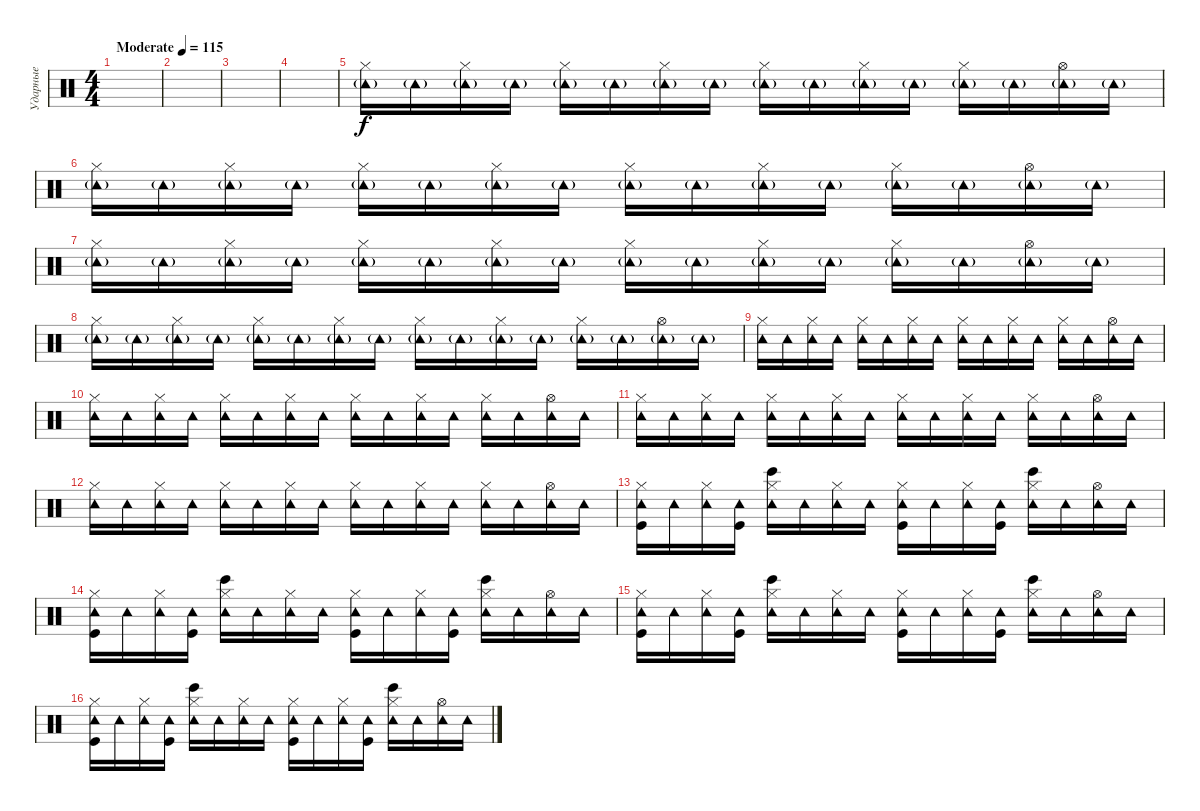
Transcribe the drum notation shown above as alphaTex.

\track ("Ударные" "Ударные") {instrument percussion}
\staff {score}
\articulation defaults
\ts (4 4)
\tempo (115 "Moderate")
\clef neutral
\ks c
|
|
|
|
("Tambourine (hit)"{g} "Hi-Hat (closed)").16{volume 11} "Tambourine (hit)"{g}.16 ("Tambourine (hit)"{g} "Hi-Hat (closed)").16 "Tambourine (hit)"{g}.16 ("Tambourine (hit)"{g} "Hi-Hat (closed)").16 "Tambourine (hit)"{g}.16 ("Tambourine (hit)"{g} "Hi-Hat (closed)").16 "Tambourine (hit)"{g}.16 ("Tambourine (hit)"{g} "Hi-Hat (closed)").16 "Tambourine (hit)"{g}.16 ("Tambourine (hit)"{g} "Hi-Hat (closed)").16 "Tambourine (hit)"{g}.16 ("Tambourine (hit)"{g} "Hi-Hat (closed)").16 "Tambourine (hit)"{g}.16 ("Tambourine (hit)"{g} "Hi-Hat (open)").16 "Tambourine (hit)"{g}.16 |
("Tambourine (hit)"{g} "Hi-Hat (closed)").16 "Tambourine (hit)"{g}.16 ("Tambourine (hit)"{g} "Hi-Hat (closed)").16 "Tambourine (hit)"{g}.16 ("Tambourine (hit)"{g} "Hi-Hat (closed)").16 "Tambourine (hit)"{g}.16 ("Tambourine (hit)"{g} "Hi-Hat (closed)").16 "Tambourine (hit)"{g}.16 ("Tambourine (hit)"{g} "Hi-Hat (closed)").16 "Tambourine (hit)"{g}.16 ("Tambourine (hit)"{g} "Hi-Hat (closed)").16 "Tambourine (hit)"{g}.16 ("Tambourine (hit)"{g} "Hi-Hat (closed)").16 "Tambourine (hit)"{g}.16 ("Tambourine (hit)"{g} "Hi-Hat (open)").16 "Tambourine (hit)"{g}.16 |
("Tambourine (hit)"{g} "Hi-Hat (closed)").16 "Tambourine (hit)"{g}.16 ("Tambourine (hit)"{g} "Hi-Hat (closed)").16 "Tambourine (hit)"{g}.16 ("Tambourine (hit)"{g} "Hi-Hat (closed)").16 "Tambourine (hit)"{g}.16 ("Tambourine (hit)"{g} "Hi-Hat (closed)").16 "Tambourine (hit)"{g}.16 ("Tambourine (hit)"{g} "Hi-Hat (closed)").16 "Tambourine (hit)"{g}.16 ("Tambourine (hit)"{g} "Hi-Hat (closed)").16 "Tambourine (hit)"{g}.16 ("Tambourine (hit)"{g} "Hi-Hat (closed)").16 "Tambourine (hit)"{g}.16 ("Tambourine (hit)"{g} "Hi-Hat (open)").16 "Tambourine (hit)"{g}.16 |
("Tambourine (hit)"{g} "Hi-Hat (closed)").16 "Tambourine (hit)"{g}.16 ("Tambourine (hit)"{g} "Hi-Hat (closed)").16 "Tambourine (hit)"{g}.16 ("Tambourine (hit)"{g} "Hi-Hat (closed)").16 "Tambourine (hit)"{g}.16 ("Tambourine (hit)"{g} "Hi-Hat (closed)").16 "Tambourine (hit)"{g}.16 ("Tambourine (hit)"{g} "Hi-Hat (closed)").16 "Tambourine (hit)"{g}.16 ("Tambourine (hit)"{g} "Hi-Hat (closed)").16 "Tambourine (hit)"{g}.16 ("Tambourine (hit)"{g} "Hi-Hat (closed)").16 "Tambourine (hit)"{g}.16 ("Tambourine (hit)"{g} "Hi-Hat (open)").16 "Tambourine (hit)"{g}.16 |
("Tambourine (hit)" "Hi-Hat (closed)").16{dy f} "Tambourine (hit)".16 ("Tambourine (hit)" "Hi-Hat (closed)").16 "Tambourine (hit)".16 ("Tambourine (hit)" "Hi-Hat (closed)").16 "Tambourine (hit)".16 ("Tambourine (hit)" "Hi-Hat (closed)").16 "Tambourine (hit)".16 ("Tambourine (hit)" "Hi-Hat (closed)").16 "Tambourine (hit)".16 ("Tambourine (hit)" "Hi-Hat (closed)").16 "Tambourine (hit)".16 ("Tambourine (hit)" "Hi-Hat (closed)").16 "Tambourine (hit)".16 ("Tambourine (hit)" "Hi-Hat (open)").16 "Tambourine (hit)".16 |
("Tambourine (hit)" "Hi-Hat (closed)").16 "Tambourine (hit)".16 ("Tambourine (hit)" "Hi-Hat (closed)").16 "Tambourine (hit)".16 ("Tambourine (hit)" "Hi-Hat (closed)").16 "Tambourine (hit)".16 ("Tambourine (hit)" "Hi-Hat (closed)").16 "Tambourine (hit)".16 ("Tambourine (hit)" "Hi-Hat (closed)").16 "Tambourine (hit)".16 ("Tambourine (hit)" "Hi-Hat (closed)").16 "Tambourine (hit)".16 ("Tambourine (hit)" "Hi-Hat (closed)").16 "Tambourine (hit)".16 ("Tambourine (hit)" "Hi-Hat (open)").16 "Tambourine (hit)".16 |
("Tambourine (hit)" "Hi-Hat (closed)").16 "Tambourine (hit)".16 ("Tambourine (hit)" "Hi-Hat (closed)").16 "Tambourine (hit)".16 ("Tambourine (hit)" "Hi-Hat (closed)").16 "Tambourine (hit)".16 ("Tambourine (hit)" "Hi-Hat (closed)").16 "Tambourine (hit)".16 ("Tambourine (hit)" "Hi-Hat (closed)").16 "Tambourine (hit)".16 ("Tambourine (hit)" "Hi-Hat (closed)").16 "Tambourine (hit)".16 ("Tambourine (hit)" "Hi-Hat (closed)").16 "Tambourine (hit)".16 ("Tambourine (hit)" "Hi-Hat (open)").16 "Tambourine (hit)".16 |
("Tambourine (hit)" "Hi-Hat (closed)").16 "Tambourine (hit)".16 ("Tambourine (hit)" "Hi-Hat (closed)").16 "Tambourine (hit)".16 ("Tambourine (hit)" "Hi-Hat (closed)").16 "Tambourine (hit)".16 ("Tambourine (hit)" "Hi-Hat (closed)").16 "Tambourine (hit)".16 ("Tambourine (hit)" "Hi-Hat (closed)").16 "Tambourine (hit)".16 ("Tambourine (hit)" "Hi-Hat (closed)").16 "Tambourine (hit)".16 ("Tambourine (hit)" "Hi-Hat (closed)").16 "Tambourine (hit)".16 ("Tambourine (hit)" "Hi-Hat (open)").16 "Tambourine (hit)".16 |
("Tambourine (hit)" "Hi-Hat (closed)" "Kick (hit)").16 "Tambourine (hit)".16 ("Tambourine (hit)" "Hi-Hat (closed)").16 ("Tambourine (hit)" "Kick (hit)").16 ("Tambourine (hit)" "Hi-Hat (closed)" "Bongo High (hit)").16 "Tambourine (hit)".16 ("Tambourine (hit)" "Hi-Hat (closed)").16 "Tambourine (hit)".16 ("Tambourine (hit)" "Hi-Hat (closed)" "Kick (hit)").16 "Tambourine (hit)".16 ("Tambourine (hit)" "Hi-Hat (closed)").16 ("Tambourine (hit)" "Kick (hit)").16 ("Tambourine (hit)" "Hi-Hat (closed)" "Bongo High (hit)").16 "Tambourine (hit)".16 ("Tambourine (hit)" "Hi-Hat (open)").16 "Tambourine (hit)".16 |
("Tambourine (hit)" "Hi-Hat (closed)" "Kick (hit)").16 "Tambourine (hit)".16 ("Tambourine (hit)" "Hi-Hat (closed)").16 ("Tambourine (hit)" "Kick (hit)").16 ("Tambourine (hit)" "Hi-Hat (closed)" "Bongo High (hit)").16 "Tambourine (hit)".16 ("Tambourine (hit)" "Hi-Hat (closed)").16 "Tambourine (hit)".16 ("Tambourine (hit)" "Hi-Hat (closed)" "Kick (hit)").16 "Tambourine (hit)".16 ("Tambourine (hit)" "Hi-Hat (closed)").16 ("Tambourine (hit)" "Kick (hit)").16 ("Tambourine (hit)" "Hi-Hat (closed)" "Bongo High (hit)").16 "Tambourine (hit)".16 ("Tambourine (hit)" "Hi-Hat (open)").16 "Tambourine (hit)".16 |
("Tambourine (hit)" "Hi-Hat (closed)" "Kick (hit)").16 "Tambourine (hit)".16 ("Tambourine (hit)" "Hi-Hat (closed)").16 ("Tambourine (hit)" "Kick (hit)").16 ("Tambourine (hit)" "Hi-Hat (closed)" "Bongo High (hit)").16 "Tambourine (hit)".16 ("Tambourine (hit)" "Hi-Hat (closed)").16 "Tambourine (hit)".16 ("Tambourine (hit)" "Hi-Hat (closed)" "Kick (hit)").16 "Tambourine (hit)".16 ("Tambourine (hit)" "Hi-Hat (closed)").16 ("Tambourine (hit)" "Kick (hit)").16 ("Tambourine (hit)" "Hi-Hat (closed)" "Bongo High (hit)").16 "Tambourine (hit)".16 ("Tambourine (hit)" "Hi-Hat (open)").16 "Tambourine (hit)".16 |
("Tambourine (hit)" "Hi-Hat (closed)" "Kick (hit)").16 "Tambourine (hit)".16 ("Tambourine (hit)" "Hi-Hat (closed)").16 ("Tambourine (hit)" "Kick (hit)").16 ("Tambourine (hit)" "Hi-Hat (closed)" "Bongo High (hit)").16 "Tambourine (hit)".16 ("Tambourine (hit)" "Hi-Hat (closed)").16 "Tambourine (hit)".16 ("Tambourine (hit)" "Hi-Hat (closed)" "Kick (hit)").16 "Tambourine (hit)".16 ("Tambourine (hit)" "Hi-Hat (closed)").16 ("Tambourine (hit)" "Kick (hit)").16 ("Tambourine (hit)" "Hi-Hat (closed)" "Bongo High (hit)").16 "Tambourine (hit)".16 ("Tambourine (hit)" "Hi-Hat (open)").16 "Tambourine (hit)".16
